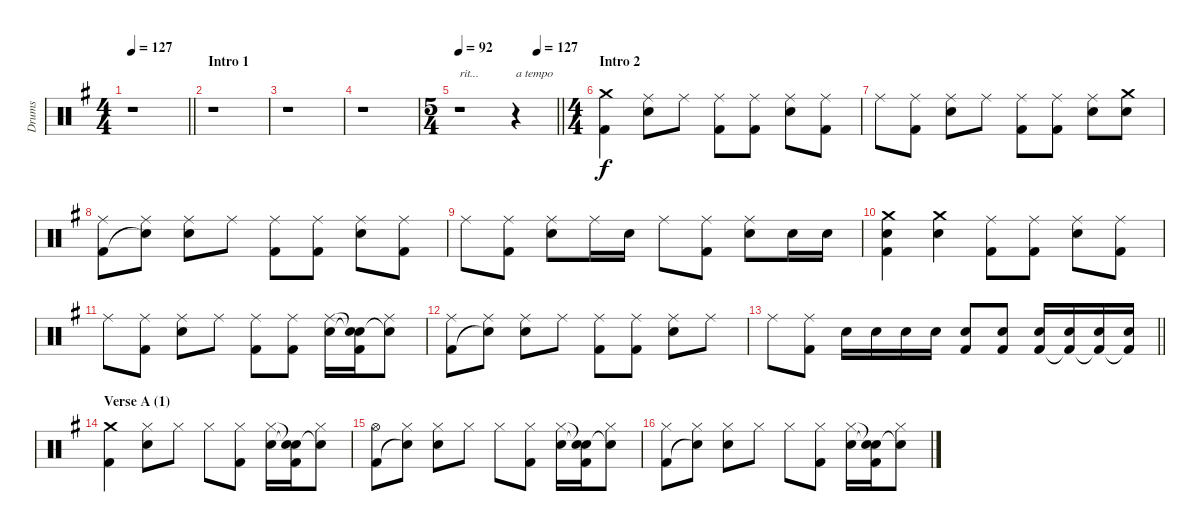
\track ("Drums" "Drums") {instrument percussion}
\staff {score}
\articulation defaults
\ts (4 4)
\tempo 127
\clef neutral
\barLineRight lightlight
\ks eminor
r.1{dy f} |
\section ("" "Intro 1")
r.1 |
r.1 |
r.1 |
\ts (5 4)
\tempo 92
\tempo (127 0.8)
\barLineRight lightlight
r.1{txt "rit..."} r.4{txt "a tempo"} |
\ts (4 4)
\section ("" "Intro 2")
("Crash medium (hit)" "Kick (hit) 2").4 ("Ride (middle)" "Electric Snare (hit)").8 "Ride (middle)".8 ("Ride (middle)" "Kick (hit) 2").8 ("Ride (middle)" "Kick (hit) 2").8 ("Ride (middle)" "Electric Snare (hit)").8 ("Ride (middle)" "Kick (hit) 2").8 |
"Ride (middle)".8 ("Ride (middle)" "Kick (hit) 2").8 ("Ride (middle)" "Electric Snare (hit)").8 "Ride (middle)".8 ("Ride (middle)" "Kick (hit) 2").8 ("Ride (middle)" "Kick (hit) 2").8 ("Ride (middle)" "Electric Snare (hit)").8 ("Crash medium (hit)" "Electric Snare (hit)").8 |
("Ride (middle)" "Kick (hit) 2").8 ("Ride (middle)" "Snare (hit)"{t}).8 ("Ride (middle)" "Electric Snare (hit)").8 "Ride (middle)".8 ("Ride (middle)" "Kick (hit) 2").8 ("Ride (middle)" "Kick (hit) 2").8 ("Ride (middle)" "Electric Snare (hit)").8 ("Ride (middle)" "Kick (hit) 2").8 |
"Ride (middle)".8 ("Ride (middle)" "Kick (hit) 2").8 ("Ride (middle)" "Electric Snare (hit)").8 "Ride (middle)".16 "Electric Snare (hit)".16 "Ride (middle)".8 ("Ride (middle)" "Kick (hit) 2").8 ("Ride (middle)" "Electric Snare (hit)").8 "Electric Snare (hit)".16 "Electric Snare (hit)".16 |
("Crash medium (hit)" "Electric Snare (hit)" "Kick (hit) 2").4 ("Crash medium (hit)" "Electric Snare (hit)").4 ("Ride (middle)" "Kick (hit) 2").8 ("Ride (middle)" "Kick (hit) 2").8 ("Ride (middle)" "Electric Snare (hit)").8 ("Ride (middle)" "Kick (hit) 2").8 |
"Ride (middle)".8 ("Ride (middle)" "Kick (hit) 2").8 ("Ride (middle)" "Electric Snare (hit)").8 "Ride (middle)".8 ("Ride (middle)" "Kick (hit) 2").8 ("Ride (middle)" "Kick (hit) 2").8 ("Ride (middle)" "Electric Snare (hit)").16 ("Snare (hit)"{t} "Snare (hit)"{t} "Kick (hit) 2").16 ("Ride (middle)" "Snare (hit)"{t}).8 |
("Ride (middle)" "Kick (hit) 2").8 ("Ride (middle)" "Snare (hit)"{t}).8 ("Ride (middle)" "Electric Snare (hit)").8 "Ride (middle)".8 ("Ride (middle)" "Kick (hit) 2").8 ("Ride (middle)" "Kick (hit) 2").8 ("Ride (middle)" "Electric Snare (hit)").8 "Ride (middle)".8 |
\barLineRight lightlight "Ride (middle)".8
("Ride (middle)" "Kick (hit) 2").8 "Electric Snare (hit)".16 "Electric Snare (hit)".16 "Electric Snare (hit)".16 "Electric Snare (hit)".16 ("Electric Snare (hit)" "Kick (hit) 2").8 ("Electric Snare (hit)" "Kick (hit) 2").8 ("Electric Snare (hit)" "Kick (hit) 2").16 ("Electric Snare (hit)" "Kick (hit) 2"{t}).16 ("Electric Snare (hit)" "Kick (hit) 2"{t}).16 ("Electric Snare (hit)" "Kick (hit) 2"{t}).16 |
\section ("" "Verse A (1)")
("Crash medium (hit)" "Kick (hit) 2").4 ("Hi-Hat (closed)" "Electric Snare (hit)").8 "Hi-Hat (closed)".8 "Hi-Hat (closed)".8 ("Hi-Hat (closed)" "Kick (hit) 2").8 ("Hi-Hat (closed)" "Electric Snare (hit)").16 ("Snare (hit)"{t} "Snare (hit)"{t} "Kick (hit) 2").16 ("Hi-Hat (closed)" "Snare (hit)"{t}).8 |
("Hi-Hat (open)" "Kick (hit) 2").8 ("Hi-Hat (closed)" "Snare (hit)"{t}).8 ("Hi-Hat (closed)" "Electric Snare (hit)").8 "Hi-Hat (closed)".8 "Hi-Hat (closed)".8 ("Hi-Hat (closed)" "Kick (hit) 2").8 ("Hi-Hat (closed)" "Electric Snare (hit)").16 ("Snare (hit)"{t} "Snare (hit)"{t} "Kick (hit) 2").16 ("Hi-Hat (closed)" "Snare (hit)"{t}).8 |
("Hi-Hat (closed)" "Kick (hit) 2").8 ("Hi-Hat (closed)" "Snare (hit)"{t}).8 ("Hi-Hat (closed)" "Electric Snare (hit)").8 "Hi-Hat (closed)".8 "Hi-Hat (closed)".8 ("Hi-Hat (closed)" "Kick (hit) 2").8 ("Hi-Hat (closed)" "Electric Snare (hit)").16 ("Snare (hit)"{t} "Snare (hit)"{t} "Kick (hit) 2").16 ("Hi-Hat (closed)" "Snare (hit)"{t}).8
